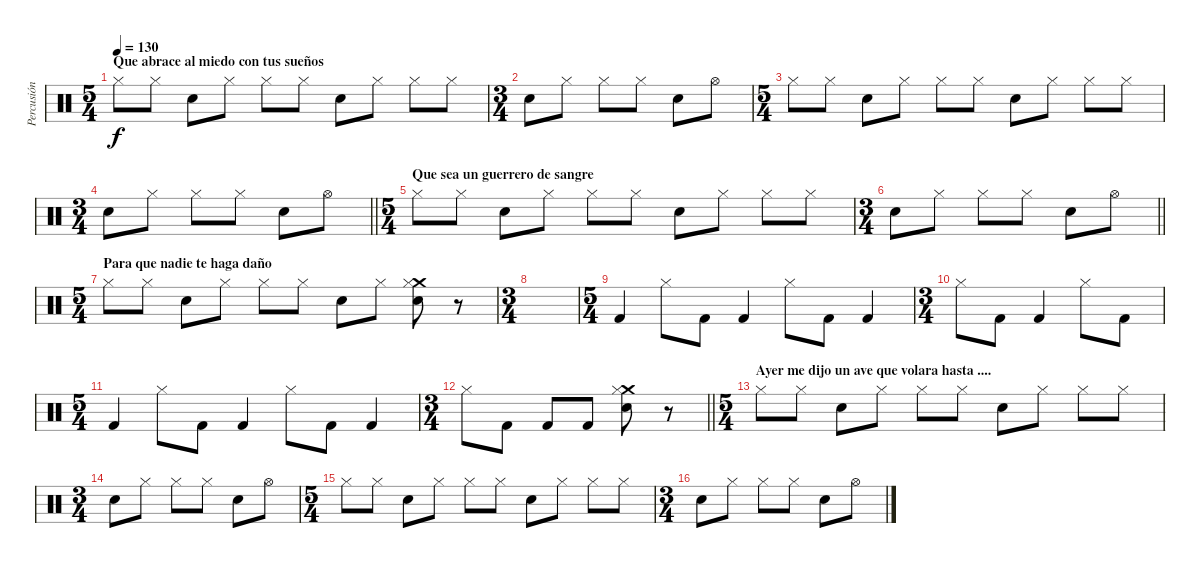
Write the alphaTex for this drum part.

\track ("Percusión" "Percusión") {instrument percussion}
\staff {score}
\articulation defaults
\ts (5 4)
\section ("" "Que abrace al miedo con tus sueños")
\tempo 130
\clef neutral
\ks c "Hi-Hat (closed)".8{dy f} "Hi-Hat (closed)".8 "Snare (hit) 2".8 "Hi-Hat (closed)".8 "Hi-Hat (closed)".8 "Hi-Hat (closed)".8 "Snare (hit) 2".8 "Hi-Hat (closed)".8 "Hi-Hat (closed)".8 "Hi-Hat (closed)".8
|
\ts (3 4)
"Snare (hit) 2".8 "Hi-Hat (closed)".8 "Hi-Hat (closed)".8 "Hi-Hat (closed)".8 "Snare (hit) 2".8 "Hi-Hat (open)".8 |
\ts (5 4)
"Hi-Hat (closed)".8 "Hi-Hat (closed)".8 "Snare (hit) 2".8 "Hi-Hat (closed)".8 "Hi-Hat (closed)".8 "Hi-Hat (closed)".8 "Snare (hit) 2".8 "Hi-Hat (closed)".8 "Hi-Hat (closed)".8 "Hi-Hat (closed)".8 |
\ts (3 4)
\barLineRight lightlight "Snare (hit) 2".8 "Hi-Hat (closed)".8 "Hi-Hat (closed)".8 "Hi-Hat (closed)".8 "Snare (hit) 2".8 "Hi-Hat (open)".8
|
\ts (5 4)
\section ("" "Que sea un guerrero de sangre")
"Hi-Hat (closed)".8 "Hi-Hat (closed)".8 "Snare (hit) 2".8 "Hi-Hat (closed)".8 "Hi-Hat (closed)".8 "Hi-Hat (closed)".8 "Snare (hit) 2".8 "Hi-Hat (closed)".8 "Hi-Hat (closed)".8 "Hi-Hat (closed)".8 |
\ts (3 4)
\barLineRight lightlight "Snare (hit) 2".8 "Hi-Hat (closed)".8 "Hi-Hat (closed)".8 "Hi-Hat (closed)".8 "Snare (hit) 2".8 "Hi-Hat (open)".8
|
\ts (5 4)
\section ("" "Para que nadie te haga daño")
"Hi-Hat (closed)".8 "Hi-Hat (closed)".8 "Snare (hit) 2".8 "Hi-Hat (closed)".8 "Hi-Hat (closed)".8 "Hi-Hat (closed)".8 "Snare (hit) 2".8 "Hi-Hat (closed)".8 ("Crash medium (hit)" "Snare (hit) 2" "Hi-Hat (closed)").8 r.8 |
\ts (3 4)
|
\ts (5 4)
"Kick (hit) 2".4 "Hi-Hat (closed)".8 "Kick (hit) 2".8 "Kick (hit) 2".4 "Hi-Hat (closed)".8 "Kick (hit) 2".8 "Kick (hit) 2".4 |
\ts (3 4)
"Hi-Hat (closed)".8 "Kick (hit) 2".8 "Kick (hit) 2".4 "Hi-Hat (closed)".8 "Kick (hit) 2".8 |
\ts (5 4)
"Kick (hit) 2".4 "Hi-Hat (closed)".8 "Kick (hit) 2".8 "Kick (hit) 2".4 "Hi-Hat (closed)".8 "Kick (hit) 2".8 "Kick (hit) 2".4 |
\ts (3 4)
\barLineRight lightlight "Hi-Hat (closed)".8 "Kick (hit) 2".8 "Kick (hit) 2".8 "Kick (hit) 2".8
("Crash medium (hit)" "Snare (hit) 2" "Hi-Hat (closed)").8 r.8 |
\ts (5 4)
\section ("" "Ayer me dijo un ave que volara hasta ....")
"Hi-Hat (closed)".8 "Hi-Hat (closed)".8 "Snare (hit) 2".8 "Hi-Hat (closed)".8 "Hi-Hat (closed)".8 "Hi-Hat (closed)".8 "Snare (hit) 2".8 "Hi-Hat (closed)".8 "Hi-Hat (closed)".8 "Hi-Hat (closed)".8 |
\ts (3 4)
"Snare (hit) 2".8 "Hi-Hat (closed)".8 "Hi-Hat (closed)".8 "Hi-Hat (closed)".8 "Snare (hit) 2".8 "Hi-Hat (open)".8 |
\ts (5 4)
"Hi-Hat (closed)".8 "Hi-Hat (closed)".8 "Snare (hit) 2".8 "Hi-Hat (closed)".8 "Hi-Hat (closed)".8 "Hi-Hat (closed)".8 "Snare (hit) 2".8 "Hi-Hat (closed)".8 "Hi-Hat (closed)".8 "Hi-Hat (closed)".8 |
\ts (3 4)
"Snare (hit) 2".8 "Hi-Hat (closed)".8 "Hi-Hat (closed)".8 "Hi-Hat (closed)".8 "Snare (hit) 2".8 "Hi-Hat (open)".8
